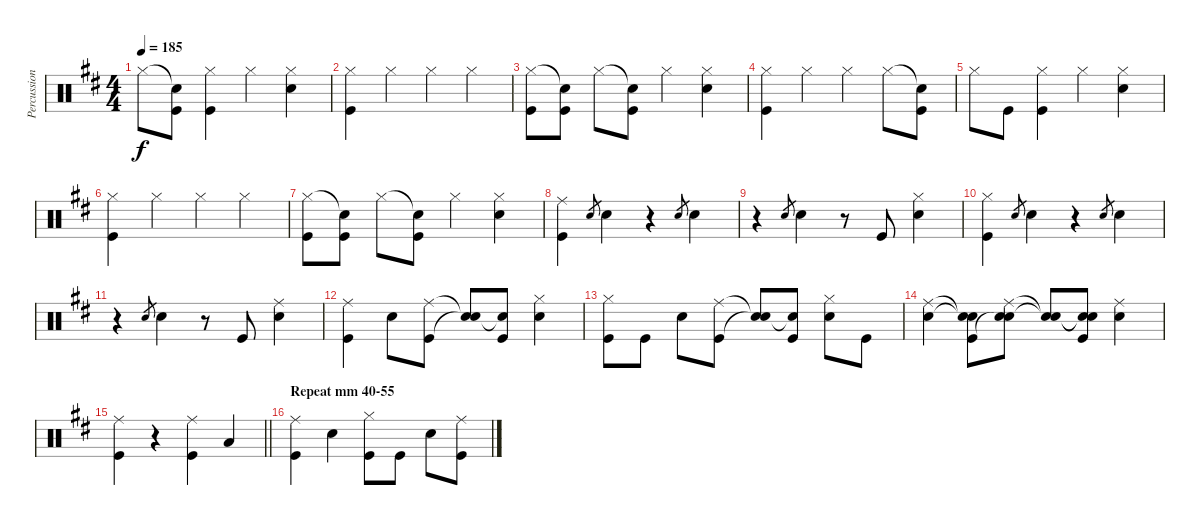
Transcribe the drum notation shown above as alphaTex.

\track ("Percussion" "Percussion") {instrument percussion}
\staff {score}
\articulation defaults
\ts (4 4)
\tempo 185
\clef neutral
\ks d "Hi-Hat (closed)".8{dy f}
("Snare (hit)"{t} "Kick (hit)").8 ("Hi-Hat (closed)" "Kick (hit)").4 "Hi-Hat (closed)".4 ("Hi-Hat (closed)" "Snare (hit) 2").4 |
("Hi-Hat (closed)" "Kick (hit)").4 "Hi-Hat (closed)".4 "Hi-Hat (closed)".4 "Hi-Hat (closed)".4 |
("Hi-Hat (closed)" "Kick (hit)").8 ("Snare (hit)"{t} "Kick (hit)").8 "Hi-Hat (closed)".8 ("Snare (hit)"{t} "Kick (hit)").8 "Hi-Hat (closed)".4 ("Hi-Hat (closed)" "Snare (hit) 2").4 |
("Hi-Hat (closed)" "Kick (hit)").4 "Hi-Hat (closed)".4 "Hi-Hat (closed)".4 "Hi-Hat (closed)".8 ("Snare (hit)"{t} "Kick (hit)").8 |
"Hi-Hat (closed)".8 "Kick (hit)".8 ("Hi-Hat (closed)" "Kick (hit)").4 "Hi-Hat (closed)".4 ("Hi-Hat (closed)" "Snare (hit) 2").4 |
("Hi-Hat (closed)" "Kick (hit)").4 "Hi-Hat (closed)".4 "Hi-Hat (closed)".4 "Hi-Hat (closed)".4 |
("Hi-Hat (closed)" "Kick (hit)").8 ("Snare (hit)"{t} "Kick (hit)").8 "Hi-Hat (closed)".8 ("Snare (hit)"{t} "Kick (hit)").8 "Hi-Hat (closed)".4 ("Hi-Hat (closed)" "Snare (hit) 2").4 |
("Ride (middle)" "Kick (hit)").4 "Snare (hit) 2".8{gr} "Snare (hit) 2".4 r.4 "Snare (hit) 2".8{gr} "Snare (hit) 2".4 |
r.4 "Snare (hit) 2".8{gr} "Snare (hit) 2".4 r.8 "Kick (hit)".8 ("Hi-Hat (closed)" "Snare (hit) 2").4 |
("Hi-Hat (closed)" "Kick (hit)").4 "Snare (hit) 2".8{gr} "Snare (hit) 2".4 r.4 "Snare (hit) 2".8{gr} "Snare (hit) 2".4 |
r.4 "Snare (hit) 2".8{gr} "Snare (hit) 2".4 r.8 "Kick (hit)".8 ("Ride (middle)" "Snare (hit) 2").4 |
("Ride (middle)" "Kick (hit)").4 "Snare (hit) 2".8 ("Ride (middle)" "Kick (hit)").8 ("Snare (hit)"{t} "Snare (hit)"{t}).8 ("Snare (hit)"{t} "Kick (hit)").8 ("Hi-Hat (closed)" "Snare (hit) 2").4 |
("Hi-Hat (closed)" "Kick (hit)").8 "Kick (hit)".8 "Snare (hit) 2".8 ("Ride (middle)" "Kick (hit)").8 ("Snare (hit)"{t} "Snare (hit)"{t}).8 ("Snare (hit)"{t} "Kick (hit)").8 ("Hi-Hat (closed)" "Snare (hit) 2").8 "Kick (hit)".8 |
("Ride (middle)" "Snare (hit) 2").4 ("Snare (hit)"{t} "Snare (hit)"{t} "Kick (hit)").8 ("Ride (middle)" "Snare (hit) 2" "Snare (hit)"{t}).8 ("Snare (hit)"{t} "Snare (hit)"{t}).8 ("Snare (hit)"{t} "Snare (hit)"{t} "Kick (hit)").8 ("Ride (middle)" "Snare (hit) 2").4 |
\barLineRight lightlight
("Ride (middle)" "Kick (hit)").4 r.4 ("Ride (middle)" "Kick (hit)").4 "Low Tom (hit)".4 |
\section ("" "Repeat mm 40-55")
("Ride (middle)" "Kick (hit)").4 "Snare (hit) 2".4 ("Hi-Hat (closed)" "Kick (hit)").8 "Kick (hit)".8 "Snare (hit) 2".8 ("Ride (middle)" "Kick (hit)").8
